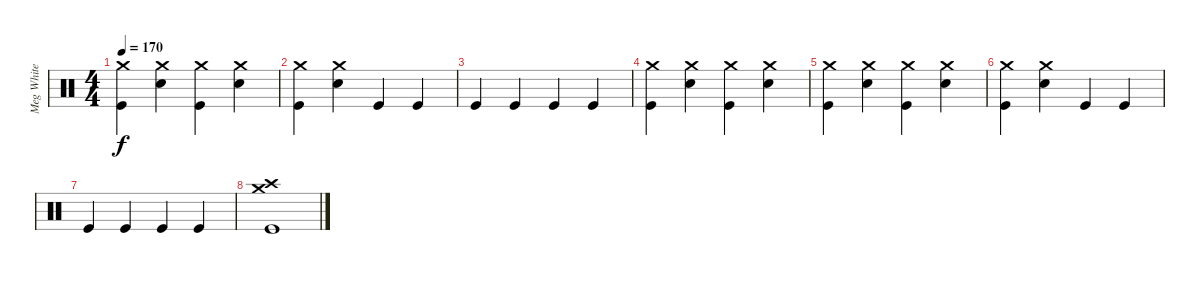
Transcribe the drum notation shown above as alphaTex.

\track ("Meg White" "Meg White") {instrument percussion}
\staff {score}
\articulation defaults
\ts (4 4)
\tempo 170
\clef neutral
\ks c
("Kick (hit)" "Crash medium (hit)").4{dy f} ("Snare (hit) 2" "Crash medium (hit)").4 ("Kick (hit)" "Crash medium (hit)").4 ("Snare (hit) 2" "Crash medium (hit)").4 |
("Kick (hit)" "Crash medium (hit)").4 ("Snare (hit) 2" "Crash medium (hit)").4 "Kick (hit)".4 "Kick (hit)".4 |
"Kick (hit)".4 "Kick (hit)".4 "Kick (hit)".4 "Kick (hit)".4 |
("Kick (hit)" "Crash medium (hit)").4 ("Snare (hit) 2" "Crash medium (hit)").4 ("Kick (hit)" "Crash medium (hit)").4 ("Snare (hit) 2" "Crash medium (hit)").4 |
("Kick (hit)" "Crash medium (hit)").4 ("Snare (hit) 2" "Crash medium (hit)").4 ("Kick (hit)" "Crash medium (hit)").4 ("Snare (hit) 2" "Crash medium (hit)").4 |
("Kick (hit)" "Crash medium (hit)").4 ("Snare (hit) 2" "Crash medium (hit)").4 "Kick (hit)".4 "Kick (hit)".4 |
"Kick (hit)".4 "Kick (hit)".4 "Kick (hit)".4 "Kick (hit)".4 |
("Kick (hit)" "Crash high (hit)" "Crash medium (hit)").1
